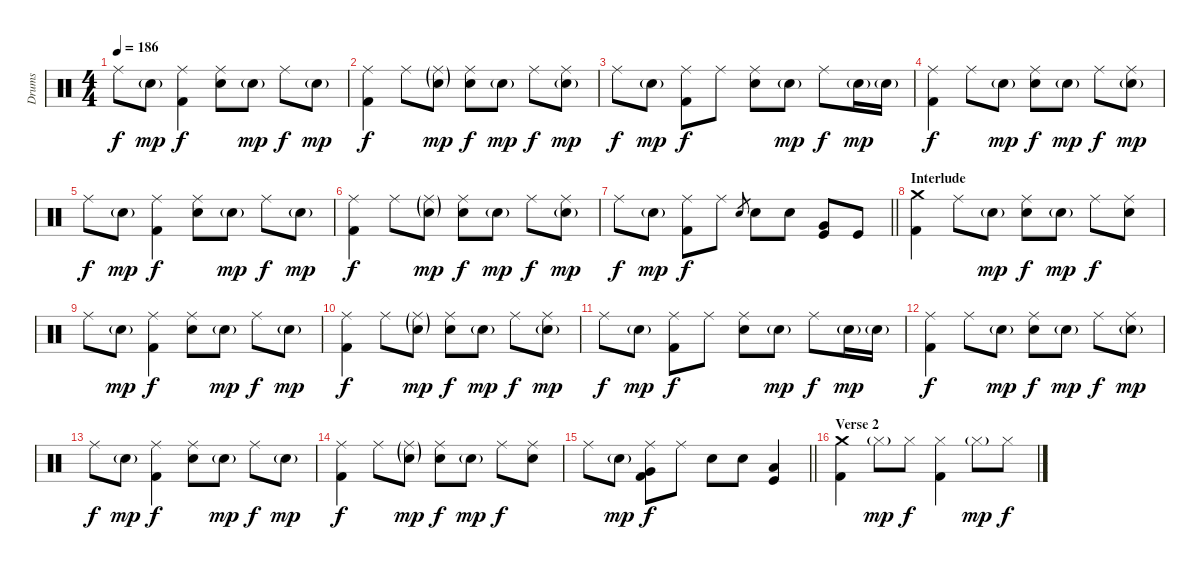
\track ("Drums" "Drums") {instrument percussion}
\staff {score}
\articulation defaults
\ts (4 4)
\tempo 186
\clef neutral
\ks c "Ride (middle)".8{dy f} "Electric Snare (hit)"{g}.8{dy mp}
("Ride (middle)" "Kick (hit) 2").4{dy f} ("Ride (middle)" "Electric Snare (hit)").8 "Electric Snare (hit)"{g}.8{dy mp} "Ride (middle)".8{dy f} "Electric Snare (hit)"{g}.8{dy mp} |
("Ride (middle)" "Kick (hit) 2").4{dy f} "Ride (middle)".8 ("Ride (middle)"{g} "Electric Snare (hit)"{g}).8{dy mp} ("Ride (middle)" "Electric Snare (hit)").8{dy f} "Electric Snare (hit)"{g}.8{dy mp} "Ride (middle)".8{dy f} ("Ride (middle)" "Electric Snare (hit)"{g}).8{dy mp} |
"Ride (middle)".8{dy f} "Electric Snare (hit)"{g}.8{dy mp} ("Ride (middle)" "Kick (hit) 2").8{dy f} "Ride (middle)".8 ("Ride (middle)" "Electric Snare (hit)").8 "Electric Snare (hit)"{g}.8{dy mp} "Ride (middle)".8{dy f} "Electric Snare (hit)"{g}.16{dy mp} "Electric Snare (hit)"{g}.16 |
("Ride (middle)" "Kick (hit) 2").4{dy f} "Ride (middle)".8 "Electric Snare (hit)"{g}.8{dy mp} ("Ride (middle)" "Electric Snare (hit)").8{dy f} "Electric Snare (hit)"{g}.8{dy mp} "Ride (middle)".8{dy f} ("Ride (middle)" "Electric Snare (hit)"{g}).8{dy mp} |
"Ride (middle)".8{dy f} "Electric Snare (hit)"{g}.8{dy mp} ("Ride (middle)" "Kick (hit) 2").4{dy f} ("Ride (middle)" "Electric Snare (hit)").8 "Electric Snare (hit)"{g}.8{dy mp} "Ride (middle)".8{dy f} "Electric Snare (hit)"{g}.8{dy mp} |
("Ride (middle)" "Kick (hit) 2").4{dy f} "Ride (middle)".8 ("Ride (middle)"{g} "Electric Snare (hit)"{g}).8{dy mp} ("Ride (middle)" "Electric Snare (hit)").8{dy f} "Electric Snare (hit)"{g}.8{dy mp} "Ride (middle)".8{dy f} ("Ride (middle)" "Electric Snare (hit)"{g}).8{dy mp} |
\barLineRight lightlight "Ride (middle)".8{dy f} "Electric Snare (hit)"{g}.8{dy mp}
("Ride (middle)" "Kick (hit) 2").8{dy f} "Ride (middle)".8 "Electric Snare (hit)".8{gr} "Electric Snare (hit)".8 "Electric Snare (hit)".8 ("Very Low Tom (hit)" "Kick (hit)").8 "Kick (hit)".8 |
\section ("" "Interlude")
("Crash medium (hit)" "Kick (hit) 2").4 "Ride (middle)".8 "Electric Snare (hit)"{g}.8{dy mp} ("Ride (middle)" "Electric Snare (hit)").8{dy f} "Electric Snare (hit)"{g}.8{dy mp} "Ride (middle)".8{dy f} ("Ride (middle)" "Electric Snare (hit)").8 |
"Ride (middle)".8 "Electric Snare (hit)"{g}.8{dy mp} ("Ride (middle)" "Kick (hit) 2").4{dy f} ("Ride (middle)" "Electric Snare (hit)").8 "Electric Snare (hit)"{g}.8{dy mp} "Ride (middle)".8{dy f} "Electric Snare (hit)"{g}.8{dy mp} |
("Ride (middle)" "Kick (hit) 2").4{dy f} "Ride (middle)".8 ("Ride (middle)"{g} "Electric Snare (hit)"{g}).8{dy mp} ("Ride (middle)" "Electric Snare (hit)").8{dy f} "Electric Snare (hit)"{g}.8{dy mp} "Ride (middle)".8{dy f} ("Ride (middle)" "Electric Snare (hit)"{g}).8{dy mp} |
"Ride (middle)".8{dy f} "Electric Snare (hit)"{g}.8{dy mp} ("Ride (middle)" "Kick (hit) 2").8{dy f} "Ride (middle)".8 ("Ride (middle)" "Electric Snare (hit)").8 "Electric Snare (hit)"{g}.8{dy mp} "Ride (middle)".8{dy f} "Electric Snare (hit)"{g}.16{dy mp} "Electric Snare (hit)"{g}.16 |
("Ride (middle)" "Kick (hit) 2").4{dy f} "Ride (middle)".8 "Electric Snare (hit)"{g}.8{dy mp} ("Ride (middle)" "Electric Snare (hit)").8{dy f} "Electric Snare (hit)"{g}.8{dy mp} "Ride (middle)".8{dy f} ("Ride (middle)" "Electric Snare (hit)"{g}).8{dy mp} |
"Ride (middle)".8{dy f} "Electric Snare (hit)"{g}.8{dy mp} ("Ride (middle)" "Kick (hit) 2").4{dy f} ("Ride (middle)" "Electric Snare (hit)").8 "Electric Snare (hit)"{g}.8{dy mp} "Ride (middle)".8{dy f} "Electric Snare (hit)"{g}.8{dy mp} |
("Ride (middle)" "Kick (hit) 2").4{dy f} "Ride (middle)".8 ("Ride (middle)"{g} "Electric Snare (hit)"{g}).8{dy mp} ("Ride (middle)" "Electric Snare (hit)").8{dy f} "Electric Snare (hit)"{g}.8{dy mp} "Ride (middle)".8{dy f} ("Ride (middle)" "Electric Snare (hit)").8 |
\barLineRight lightlight "Ride (middle)".8 "Electric Snare (hit)"{g}.8{dy mp}
("Ride (middle)" "Very Low Tom (hit)" "Kick (hit) 2").8{dy f} "Ride (middle)".8 "Electric Snare (hit)".8 "Electric Snare (hit)".8 ("Low Floor Tom (hit)" "Kick (hit)").4 |
\section ("" "Verse 2")
("Crash medium (hit)" "Kick (hit) 2").4 "Hi-Hat (closed)"{g}.8{dy mp} "Hi-Hat (closed)".8{dy f} ("Hi-Hat (closed)" "Kick (hit) 2").4 "Hi-Hat (closed)"{g}.8{dy mp} "Hi-Hat (closed)".8{dy f}
